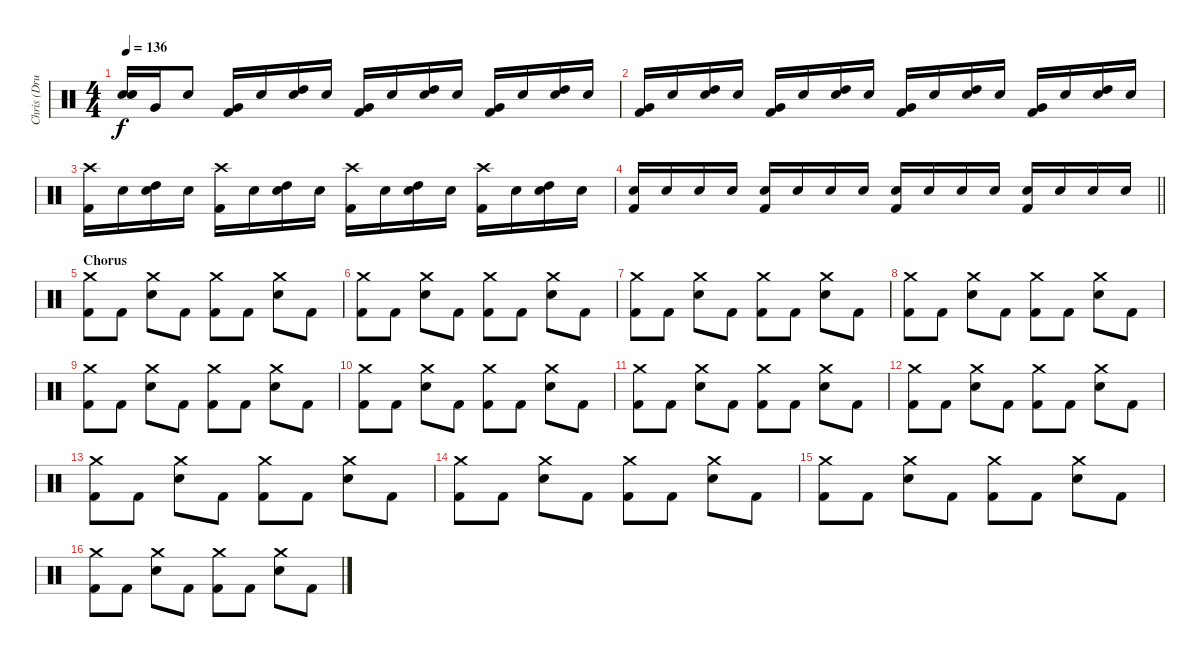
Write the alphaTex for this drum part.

\track ("Chris (Drums)" "Chris (Dru") {instrument percussion}
\staff {score}
\articulation defaults
\ts (4 4)
\tempo 136
\clef neutral
\ks c
("Snare (hit) 2" "Snare (hit) 2").16{dy f} "Very Low Tom (hit)".16 "Snare (hit) 2".8 ("Very Low Tom (hit)" "Kick (hit) 2").16 "Snare (hit) 2".16 ("High Tom (hit)" "Snare (hit) 2").16 "Snare (hit) 2".16 ("Very Low Tom (hit)" "Kick (hit) 2").16 "Snare (hit) 2".16 ("High Tom (hit)" "Snare (hit) 2").16 "Snare (hit) 2".16 ("Very Low Tom (hit)" "Kick (hit) 2").16 "Snare (hit) 2".16 ("High Tom (hit)" "Snare (hit) 2").16 "Snare (hit) 2".16 |
("Very Low Tom (hit)" "Kick (hit) 2").16 "Snare (hit) 2".16 ("High Tom (hit)" "Snare (hit) 2").16 "Snare (hit) 2".16 ("Very Low Tom (hit)" "Kick (hit) 2").16 "Snare (hit) 2".16 ("High Tom (hit)" "Snare (hit) 2").16 "Snare (hit) 2".16 ("Very Low Tom (hit)" "Kick (hit) 2").16 "Snare (hit) 2".16 ("High Tom (hit)" "Snare (hit) 2").16 "Snare (hit) 2".16 ("Very Low Tom (hit)" "Kick (hit) 2").16 "Snare (hit) 2".16 ("High Tom (hit)" "Snare (hit) 2").16 "Snare (hit) 2".16 |
("Crash high (hit)" "Kick (hit) 2").16 "Snare (hit) 2".16 ("High Tom (hit)" "Snare (hit) 2").16 "Snare (hit) 2".16 ("Crash high (hit)" "Kick (hit) 2").16 "Snare (hit) 2".16 ("High Tom (hit)" "Snare (hit) 2").16 "Snare (hit) 2".16 ("Crash high (hit)" "Kick (hit) 2").16 "Snare (hit) 2".16 ("High Tom (hit)" "Snare (hit) 2").16 "Snare (hit) 2".16 ("Crash high (hit)" "Kick (hit) 2").16 "Snare (hit) 2".16 ("High Tom (hit)" "Snare (hit) 2").16 "Snare (hit) 2".16 |
\barLineRight lightlight
("Snare (hit) 2" "Kick (hit) 2").16 "Snare (hit) 2".16 "Snare (hit) 2".16 "Snare (hit) 2".16 ("Snare (hit) 2" "Kick (hit) 2").16 "Snare (hit) 2".16 "Snare (hit) 2".16 "Snare (hit) 2".16 ("Snare (hit) 2" "Kick (hit) 2").16 "Snare (hit) 2".16 "Snare (hit) 2".16 "Snare (hit) 2".16 ("Snare (hit) 2" "Kick (hit) 2").16 "Snare (hit) 2".16 "Snare (hit) 2".16 "Snare (hit) 2".16 |
\section ("" "Chorus")
("Crash medium (hit)" "Kick (hit) 2").8 "Kick (hit) 2".8 ("Crash medium (hit)" "Snare (hit) 2").8 "Kick (hit) 2".8 ("Crash medium (hit)" "Kick (hit) 2").8 "Kick (hit) 2".8 ("Crash medium (hit)" "Snare (hit) 2").8 "Kick (hit) 2".8 |
("Crash medium (hit)" "Kick (hit) 2").8 "Kick (hit) 2".8 ("Crash medium (hit)" "Snare (hit) 2").8 "Kick (hit) 2".8 ("Crash medium (hit)" "Kick (hit) 2").8 "Kick (hit) 2".8 ("Crash medium (hit)" "Snare (hit) 2").8 "Kick (hit) 2".8 |
("Crash medium (hit)" "Kick (hit) 2").8 "Kick (hit) 2".8 ("Crash medium (hit)" "Snare (hit) 2").8 "Kick (hit) 2".8 ("Crash medium (hit)" "Kick (hit) 2").8 "Kick (hit) 2".8 ("Crash medium (hit)" "Snare (hit) 2").8 "Kick (hit) 2".8 |
("Crash medium (hit)" "Kick (hit) 2").8 "Kick (hit) 2".8 ("Crash medium (hit)" "Snare (hit) 2").8 "Kick (hit) 2".8 ("Crash medium (hit)" "Kick (hit) 2").8 "Kick (hit) 2".8 ("Crash medium (hit)" "Snare (hit) 2").8 "Kick (hit) 2".8 |
("Crash medium (hit)" "Kick (hit) 2").8 "Kick (hit) 2".8 ("Crash medium (hit)" "Snare (hit) 2").8 "Kick (hit) 2".8 ("Crash medium (hit)" "Kick (hit) 2").8 "Kick (hit) 2".8 ("Crash medium (hit)" "Snare (hit) 2").8 "Kick (hit) 2".8 |
("Crash medium (hit)" "Kick (hit) 2").8 "Kick (hit) 2".8 ("Crash medium (hit)" "Snare (hit) 2").8 "Kick (hit) 2".8 ("Crash medium (hit)" "Kick (hit) 2").8 "Kick (hit) 2".8 ("Crash medium (hit)" "Snare (hit) 2").8 "Kick (hit) 2".8 |
("Crash medium (hit)" "Kick (hit) 2").8 "Kick (hit) 2".8 ("Crash medium (hit)" "Snare (hit) 2").8 "Kick (hit) 2".8 ("Crash medium (hit)" "Kick (hit) 2").8 "Kick (hit) 2".8 ("Crash medium (hit)" "Snare (hit) 2").8 "Kick (hit) 2".8 |
("Crash medium (hit)" "Kick (hit) 2").8 "Kick (hit) 2".8 ("Crash medium (hit)" "Snare (hit) 2").8 "Kick (hit) 2".8 ("Crash medium (hit)" "Kick (hit) 2").8 "Kick (hit) 2".8 ("Crash medium (hit)" "Snare (hit) 2").8 "Kick (hit) 2".8 |
("Crash medium (hit)" "Kick (hit) 2").8 "Kick (hit) 2".8 ("Crash medium (hit)" "Snare (hit) 2").8 "Kick (hit) 2".8 ("Crash medium (hit)" "Kick (hit) 2").8 "Kick (hit) 2".8 ("Crash medium (hit)" "Snare (hit) 2").8 "Kick (hit) 2".8 |
("Crash medium (hit)" "Kick (hit) 2").8 "Kick (hit) 2".8 ("Crash medium (hit)" "Snare (hit) 2").8 "Kick (hit) 2".8 ("Crash medium (hit)" "Kick (hit) 2").8 "Kick (hit) 2".8 ("Crash medium (hit)" "Snare (hit) 2").8 "Kick (hit) 2".8 |
("Crash medium (hit)" "Kick (hit) 2").8 "Kick (hit) 2".8 ("Crash medium (hit)" "Snare (hit) 2").8 "Kick (hit) 2".8 ("Crash medium (hit)" "Kick (hit) 2").8 "Kick (hit) 2".8 ("Crash medium (hit)" "Snare (hit) 2").8 "Kick (hit) 2".8 |
("Crash medium (hit)" "Kick (hit) 2").8 "Kick (hit) 2".8 ("Crash medium (hit)" "Snare (hit) 2").8 "Kick (hit) 2".8 ("Crash medium (hit)" "Kick (hit) 2").8 "Kick (hit) 2".8 ("Crash medium (hit)" "Snare (hit) 2").8 "Kick (hit) 2".8
